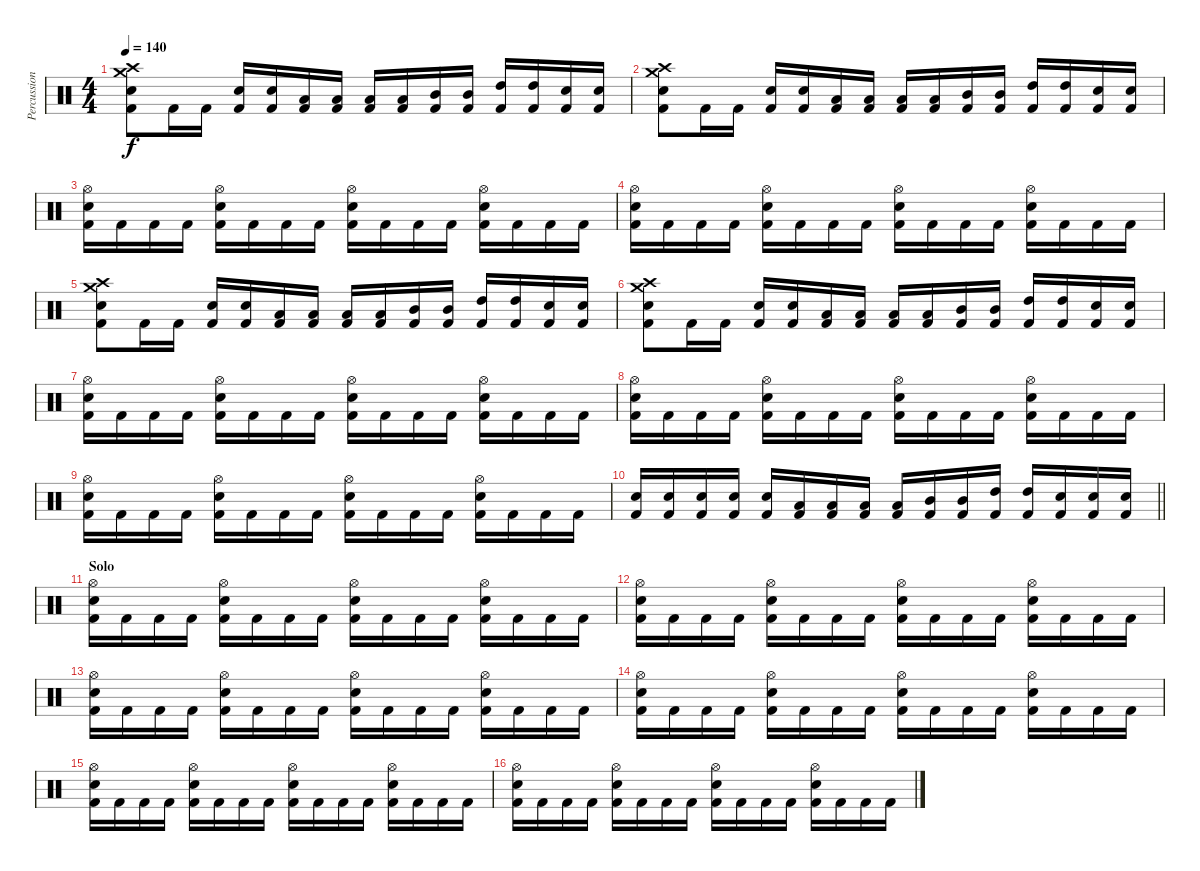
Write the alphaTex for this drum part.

\track ("Percussioni" "Percussion") {instrument percussion}
\staff {score}
\articulation defaults
\ts (4 4)
\tempo 140
\clef neutral
\ks c
("Crash high (hit)" "Crash medium (hit)" "Electric Snare (hit)" "Kick (hit) 2").8{dy f} "Kick (hit) 2".16 "Kick (hit) 2".16 ("Electric Snare (hit)" "Kick (hit) 2").16 ("Electric Snare (hit)" "Kick (hit) 2").16 ("Low Floor Tom (hit)" "Kick (hit) 2").16 ("Low Floor Tom (hit)" "Kick (hit) 2").16 ("Low Tom (hit)" "Kick (hit) 2").16 ("Low Tom (hit)" "Kick (hit) 2").16 ("Mid Tom (hit)" "Kick (hit) 2").16 ("Mid Tom (hit)" "Kick (hit) 2").16 ("High Tom (hit)" "Kick (hit) 2").16 ("High Tom (hit)" "Kick (hit) 2").16 ("Electric Snare (hit)" "Kick (hit) 2").16 ("Electric Snare (hit)" "Kick (hit) 2").16 |
("Crash high (hit)" "Crash medium (hit)" "Electric Snare (hit)" "Kick (hit) 2").8 "Kick (hit) 2".16 "Kick (hit) 2".16 ("Electric Snare (hit)" "Kick (hit) 2").16 ("Electric Snare (hit)" "Kick (hit) 2").16 ("Low Floor Tom (hit)" "Kick (hit) 2").16 ("Low Floor Tom (hit)" "Kick (hit) 2").16 ("Low Tom (hit)" "Kick (hit) 2").16 ("Low Tom (hit)" "Kick (hit) 2").16 ("Mid Tom (hit)" "Kick (hit) 2").16 ("Mid Tom (hit)" "Kick (hit) 2").16 ("High Tom (hit)" "Kick (hit) 2").16 ("High Tom (hit)" "Kick (hit) 2").16 ("Electric Snare (hit)" "Kick (hit) 2").16 ("Electric Snare (hit)" "Kick (hit) 2").16 |
("Hi-Hat (open)" "Electric Snare (hit)" "Kick (hit) 2").16 "Kick (hit) 2".16 "Kick (hit) 2".16 "Kick (hit) 2".16 ("Hi-Hat (open)" "Electric Snare (hit)" "Kick (hit) 2").16 "Kick (hit) 2".16 "Kick (hit) 2".16 "Kick (hit) 2".16 ("Hi-Hat (open)" "Electric Snare (hit)" "Kick (hit) 2").16 "Kick (hit) 2".16 "Kick (hit) 2".16 "Kick (hit) 2".16 ("Hi-Hat (open)" "Electric Snare (hit)" "Kick (hit) 2").16 "Kick (hit) 2".16 "Kick (hit) 2".16 "Kick (hit) 2".16 |
("Hi-Hat (open)" "Electric Snare (hit)" "Kick (hit) 2").16 "Kick (hit) 2".16 "Kick (hit) 2".16 "Kick (hit) 2".16 ("Hi-Hat (open)" "Electric Snare (hit)" "Kick (hit) 2").16 "Kick (hit) 2".16 "Kick (hit) 2".16 "Kick (hit) 2".16 ("Hi-Hat (open)" "Electric Snare (hit)" "Kick (hit) 2").16 "Kick (hit) 2".16 "Kick (hit) 2".16 "Kick (hit) 2".16 ("Hi-Hat (open)" "Electric Snare (hit)" "Kick (hit) 2").16 "Kick (hit) 2".16 "Kick (hit) 2".16 "Kick (hit) 2".16 |
("Crash high (hit)" "Crash medium (hit)" "Electric Snare (hit)" "Kick (hit) 2").8 "Kick (hit) 2".16 "Kick (hit) 2".16 ("Electric Snare (hit)" "Kick (hit) 2").16 ("Electric Snare (hit)" "Kick (hit) 2").16 ("Low Floor Tom (hit)" "Kick (hit) 2").16 ("Low Floor Tom (hit)" "Kick (hit) 2").16 ("Low Tom (hit)" "Kick (hit) 2").16 ("Low Tom (hit)" "Kick (hit) 2").16 ("Mid Tom (hit)" "Kick (hit) 2").16 ("Mid Tom (hit)" "Kick (hit) 2").16 ("High Tom (hit)" "Kick (hit) 2").16 ("High Tom (hit)" "Kick (hit) 2").16 ("Electric Snare (hit)" "Kick (hit) 2").16 ("Electric Snare (hit)" "Kick (hit) 2").16 |
("Crash high (hit)" "Crash medium (hit)" "Electric Snare (hit)" "Kick (hit) 2").8 "Kick (hit) 2".16 "Kick (hit) 2".16 ("Electric Snare (hit)" "Kick (hit) 2").16 ("Electric Snare (hit)" "Kick (hit) 2").16 ("Low Floor Tom (hit)" "Kick (hit) 2").16 ("Low Floor Tom (hit)" "Kick (hit) 2").16 ("Low Tom (hit)" "Kick (hit) 2").16 ("Low Tom (hit)" "Kick (hit) 2").16 ("Mid Tom (hit)" "Kick (hit) 2").16 ("Mid Tom (hit)" "Kick (hit) 2").16 ("High Tom (hit)" "Kick (hit) 2").16 ("High Tom (hit)" "Kick (hit) 2").16 ("Electric Snare (hit)" "Kick (hit) 2").16 ("Electric Snare (hit)" "Kick (hit) 2").16 |
("Hi-Hat (open)" "Electric Snare (hit)" "Kick (hit) 2").16 "Kick (hit) 2".16 "Kick (hit) 2".16 "Kick (hit) 2".16 ("Hi-Hat (open)" "Electric Snare (hit)" "Kick (hit) 2").16 "Kick (hit) 2".16 "Kick (hit) 2".16 "Kick (hit) 2".16 ("Hi-Hat (open)" "Electric Snare (hit)" "Kick (hit) 2").16 "Kick (hit) 2".16 "Kick (hit) 2".16 "Kick (hit) 2".16 ("Hi-Hat (open)" "Electric Snare (hit)" "Kick (hit) 2").16 "Kick (hit) 2".16 "Kick (hit) 2".16 "Kick (hit) 2".16 |
("Hi-Hat (open)" "Electric Snare (hit)" "Kick (hit) 2").16 "Kick (hit) 2".16 "Kick (hit) 2".16 "Kick (hit) 2".16 ("Hi-Hat (open)" "Electric Snare (hit)" "Kick (hit) 2").16 "Kick (hit) 2".16 "Kick (hit) 2".16 "Kick (hit) 2".16 ("Hi-Hat (open)" "Electric Snare (hit)" "Kick (hit) 2").16 "Kick (hit) 2".16 "Kick (hit) 2".16 "Kick (hit) 2".16 ("Hi-Hat (open)" "Electric Snare (hit)" "Kick (hit) 2").16 "Kick (hit) 2".16 "Kick (hit) 2".16 "Kick (hit) 2".16 |
("Hi-Hat (open)" "Electric Snare (hit)" "Kick (hit) 2").16 "Kick (hit) 2".16 "Kick (hit) 2".16 "Kick (hit) 2".16 ("Hi-Hat (open)" "Electric Snare (hit)" "Kick (hit) 2").16 "Kick (hit) 2".16 "Kick (hit) 2".16 "Kick (hit) 2".16 ("Hi-Hat (open)" "Electric Snare (hit)" "Kick (hit) 2").16 "Kick (hit) 2".16 "Kick (hit) 2".16 "Kick (hit) 2".16 ("Hi-Hat (open)" "Electric Snare (hit)" "Kick (hit) 2").16 "Kick (hit) 2".16 "Kick (hit) 2".16 "Kick (hit) 2".16 |
\barLineRight lightlight
("Electric Snare (hit)" "Kick (hit) 2").16 ("Electric Snare (hit)" "Kick (hit) 2").16 ("Electric Snare (hit)" "Kick (hit) 2").16 ("Electric Snare (hit)" "Kick (hit) 2").16 ("Electric Snare (hit)" "Kick (hit) 2").16 ("Low Floor Tom (hit)" "Kick (hit) 2").16 ("Low Floor Tom (hit)" "Kick (hit) 2").16 ("Low Tom (hit)" "Kick (hit) 2").16 ("Low Tom (hit)" "Kick (hit) 2").16 ("Mid Tom (hit)" "Kick (hit) 2").16 ("Mid Tom (hit)" "Kick (hit) 2").16 ("High Tom (hit)" "Kick (hit) 2").16 ("High Tom (hit)" "Kick (hit) 2").16 ("Electric Snare (hit)" "Kick (hit) 2").16 ("Electric Snare (hit)" "Kick (hit) 2").16 ("Electric Snare (hit)" "Kick (hit) 2").16 |
\section ("" "Solo")
("Hi-Hat (open)" "Electric Snare (hit)" "Kick (hit) 2").16 "Kick (hit) 2".16 "Kick (hit) 2".16 "Kick (hit) 2".16 ("Hi-Hat (open)" "Electric Snare (hit)" "Kick (hit) 2").16 "Kick (hit) 2".16 "Kick (hit) 2".16 "Kick (hit) 2".16 ("Hi-Hat (open)" "Electric Snare (hit)" "Kick (hit) 2").16 "Kick (hit) 2".16 "Kick (hit) 2".16 "Kick (hit) 2".16 ("Hi-Hat (open)" "Electric Snare (hit)" "Kick (hit) 2").16 "Kick (hit) 2".16 "Kick (hit) 2".16 "Kick (hit) 2".16 |
("Hi-Hat (open)" "Electric Snare (hit)" "Kick (hit) 2").16 "Kick (hit) 2".16 "Kick (hit) 2".16 "Kick (hit) 2".16 ("Hi-Hat (open)" "Electric Snare (hit)" "Kick (hit) 2").16 "Kick (hit) 2".16 "Kick (hit) 2".16 "Kick (hit) 2".16 ("Hi-Hat (open)" "Electric Snare (hit)" "Kick (hit) 2").16 "Kick (hit) 2".16 "Kick (hit) 2".16 "Kick (hit) 2".16 ("Hi-Hat (open)" "Electric Snare (hit)" "Kick (hit) 2").16 "Kick (hit) 2".16 "Kick (hit) 2".16 "Kick (hit) 2".16 |
("Hi-Hat (open)" "Electric Snare (hit)" "Kick (hit) 2").16 "Kick (hit) 2".16 "Kick (hit) 2".16 "Kick (hit) 2".16 ("Hi-Hat (open)" "Electric Snare (hit)" "Kick (hit) 2").16 "Kick (hit) 2".16 "Kick (hit) 2".16 "Kick (hit) 2".16 ("Hi-Hat (open)" "Electric Snare (hit)" "Kick (hit) 2").16 "Kick (hit) 2".16 "Kick (hit) 2".16 "Kick (hit) 2".16 ("Hi-Hat (open)" "Electric Snare (hit)" "Kick (hit) 2").16 "Kick (hit) 2".16 "Kick (hit) 2".16 "Kick (hit) 2".16 |
("Hi-Hat (open)" "Electric Snare (hit)" "Kick (hit) 2").16 "Kick (hit) 2".16 "Kick (hit) 2".16 "Kick (hit) 2".16 ("Hi-Hat (open)" "Electric Snare (hit)" "Kick (hit) 2").16 "Kick (hit) 2".16 "Kick (hit) 2".16 "Kick (hit) 2".16 ("Hi-Hat (open)" "Electric Snare (hit)" "Kick (hit) 2").16 "Kick (hit) 2".16 "Kick (hit) 2".16 "Kick (hit) 2".16 ("Hi-Hat (open)" "Electric Snare (hit)" "Kick (hit) 2").16 "Kick (hit) 2".16 "Kick (hit) 2".16 "Kick (hit) 2".16 |
("Hi-Hat (open)" "Electric Snare (hit)" "Kick (hit) 2").16 "Kick (hit) 2".16 "Kick (hit) 2".16 "Kick (hit) 2".16 ("Hi-Hat (open)" "Electric Snare (hit)" "Kick (hit) 2").16 "Kick (hit) 2".16 "Kick (hit) 2".16 "Kick (hit) 2".16 ("Hi-Hat (open)" "Electric Snare (hit)" "Kick (hit) 2").16 "Kick (hit) 2".16 "Kick (hit) 2".16 "Kick (hit) 2".16 ("Hi-Hat (open)" "Electric Snare (hit)" "Kick (hit) 2").16 "Kick (hit) 2".16 "Kick (hit) 2".16 "Kick (hit) 2".16 |
("Hi-Hat (open)" "Electric Snare (hit)" "Kick (hit) 2").16 "Kick (hit) 2".16 "Kick (hit) 2".16 "Kick (hit) 2".16 ("Hi-Hat (open)" "Electric Snare (hit)" "Kick (hit) 2").16 "Kick (hit) 2".16 "Kick (hit) 2".16 "Kick (hit) 2".16 ("Hi-Hat (open)" "Electric Snare (hit)" "Kick (hit) 2").16 "Kick (hit) 2".16 "Kick (hit) 2".16 "Kick (hit) 2".16 ("Hi-Hat (open)" "Electric Snare (hit)" "Kick (hit) 2").16 "Kick (hit) 2".16 "Kick (hit) 2".16 "Kick (hit) 2".16
